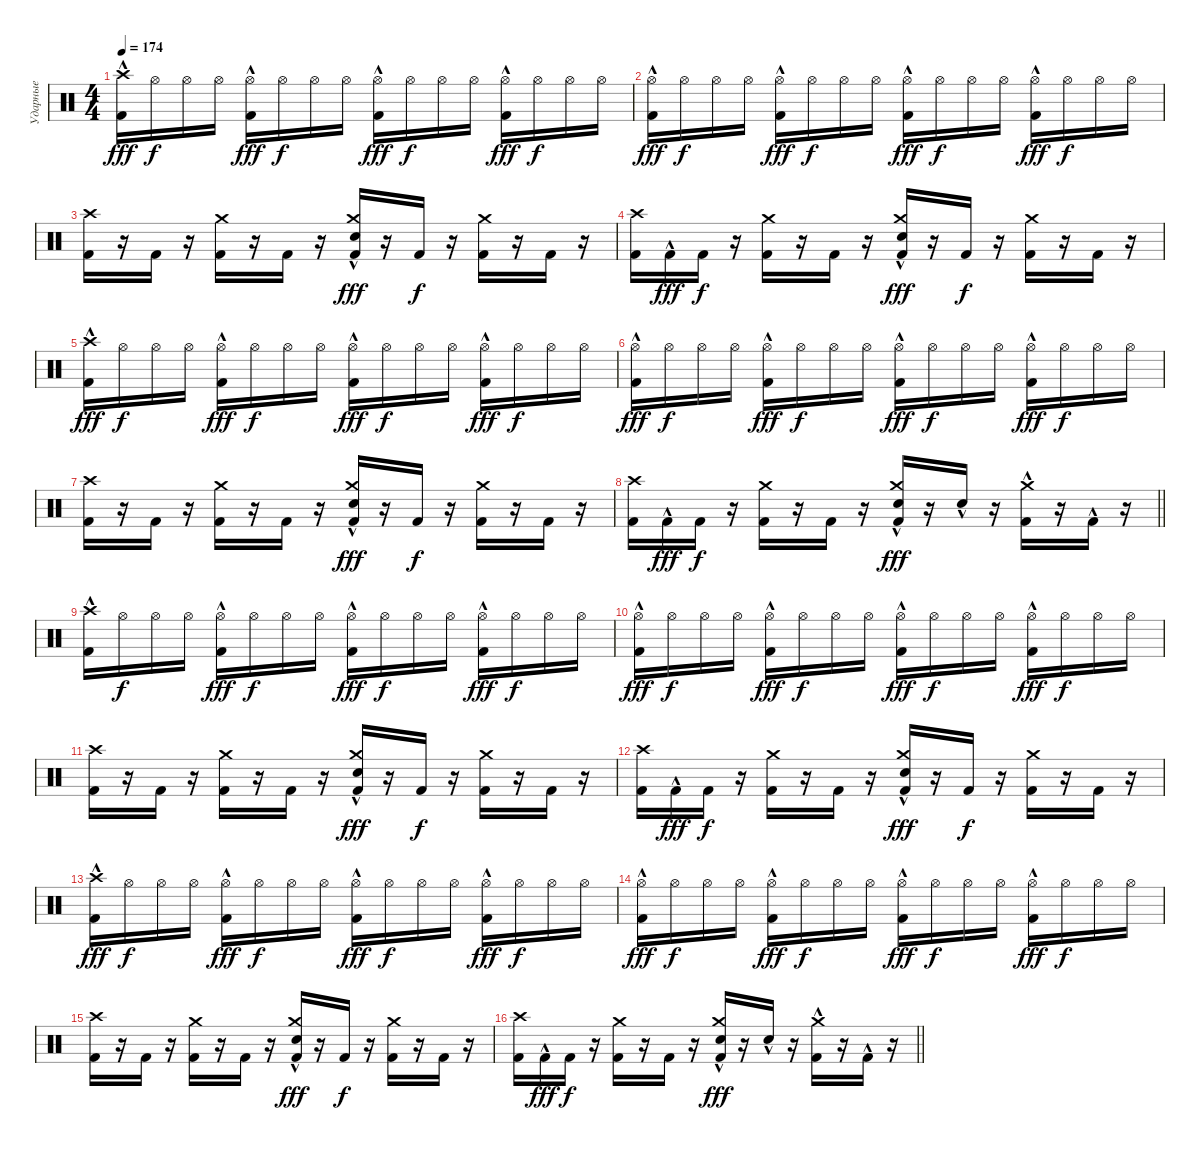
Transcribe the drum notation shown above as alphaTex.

\track ("Ударные" "Ударные") {instrument percussion}
\staff {score}
\articulation defaults
\ts (4 4)
\section ("" "")
\tempo 174
\clef neutral
\ks c
("Kick (hit) 2"{hac} "Crash high (hit)").16{dy fff} "Hi-Hat (open)".16{dy f} "Hi-Hat (open)".16 "Hi-Hat (open)".16 ("Kick (hit) 2"{hac} "Hi-Hat (open)").16{dy fff} "Hi-Hat (open)".16{dy f} "Hi-Hat (open)".16 "Hi-Hat (open)".16 ("Kick (hit) 2"{hac} "Hi-Hat (open)").16{dy fff} "Hi-Hat (open)".16{dy f} "Hi-Hat (open)".16 "Hi-Hat (open)".16 ("Kick (hit) 2"{hac} "Hi-Hat (open)").16{dy fff} "Hi-Hat (open)".16{dy f} "Hi-Hat (open)".16 "Hi-Hat (open)".16 |
("Kick (hit) 2"{hac} "Hi-Hat (open)").16{dy fff} "Hi-Hat (open)".16{dy f} "Hi-Hat (open)".16 "Hi-Hat (open)".16 ("Kick (hit) 2"{hac} "Hi-Hat (open)").16{dy fff} "Hi-Hat (open)".16{dy f} "Hi-Hat (open)".16 "Hi-Hat (open)".16 ("Kick (hit) 2"{hac} "Hi-Hat (open)").16{dy fff} "Hi-Hat (open)".16{dy f} "Hi-Hat (open)".16 "Hi-Hat (open)".16 ("Kick (hit) 2"{hac} "Hi-Hat (open)").16{dy fff} "Hi-Hat (open)".16{dy f} "Hi-Hat (open)".16 "Hi-Hat (open)".16 |
("Kick (hit) 2" "Crash high (hit)").16 r.16 "Kick (hit) 2".16 r.16 ("Kick (hit) 2" "Crash medium (hit)").16 r.16 "Kick (hit) 2".16 r.16 ("Kick (hit) 2" "Crash medium (hit)" "Snare (hit) 2"{hac}).16{dy fff} r.16 "Kick (hit) 2".16{dy f} r.16 ("Kick (hit) 2" "Crash medium (hit)").16 r.16 "Kick (hit) 2".16 r.16 |
("Kick (hit) 2" "Crash high (hit)").16 "Kick (hit) 2"{hac}.16{dy fff} "Kick (hit) 2".16{dy f} r.16 ("Kick (hit) 2" "Crash medium (hit)").16 r.16 "Kick (hit) 2".16 r.16 ("Kick (hit) 2" "Crash medium (hit)" "Snare (hit) 2"{hac}).16{dy fff} r.16 "Kick (hit) 2".16{dy f} r.16 ("Kick (hit) 2" "Crash medium (hit)").16 r.16 "Kick (hit) 2".16 r.16 |
("Kick (hit) 2"{hac} "Crash high (hit)").16{dy fff} "Hi-Hat (open)".16{dy f} "Hi-Hat (open)".16 "Hi-Hat (open)".16 ("Kick (hit) 2"{hac} "Hi-Hat (open)").16{dy fff} "Hi-Hat (open)".16{dy f} "Hi-Hat (open)".16 "Hi-Hat (open)".16 ("Kick (hit) 2"{hac} "Hi-Hat (open)").16{dy fff} "Hi-Hat (open)".16{dy f} "Hi-Hat (open)".16 "Hi-Hat (open)".16 ("Kick (hit) 2"{hac} "Hi-Hat (open)").16{dy fff} "Hi-Hat (open)".16{dy f} "Hi-Hat (open)".16 "Hi-Hat (open)".16 |
("Kick (hit) 2"{hac} "Hi-Hat (open)").16{dy fff} "Hi-Hat (open)".16{dy f} "Hi-Hat (open)".16 "Hi-Hat (open)".16 ("Kick (hit) 2"{hac} "Hi-Hat (open)").16{dy fff} "Hi-Hat (open)".16{dy f} "Hi-Hat (open)".16 "Hi-Hat (open)".16 ("Kick (hit) 2"{hac} "Hi-Hat (open)").16{dy fff} "Hi-Hat (open)".16{dy f} "Hi-Hat (open)".16 "Hi-Hat (open)".16 ("Kick (hit) 2"{hac} "Hi-Hat (open)").16{dy fff} "Hi-Hat (open)".16{dy f} "Hi-Hat (open)".16 "Hi-Hat (open)".16 |
("Kick (hit) 2" "Crash high (hit)").16 r.16 "Kick (hit) 2".16 r.16 ("Kick (hit) 2" "Crash medium (hit)").16 r.16 "Kick (hit) 2".16 r.16 ("Kick (hit) 2" "Crash medium (hit)" "Snare (hit) 2"{hac}).16{dy fff} r.16 "Kick (hit) 2".16{dy f} r.16 ("Kick (hit) 2" "Crash medium (hit)").16 r.16 "Kick (hit) 2".16 r.16 |
\barLineRight lightlight
("Kick (hit) 2" "Crash high (hit)").16 "Kick (hit) 2"{hac}.16{dy fff} "Kick (hit) 2".16{dy f} r.16 ("Kick (hit) 2" "Crash medium (hit)").16 r.16 "Kick (hit) 2".16 r.16 ("Kick (hit) 2" "Crash medium (hit)" "Snare (hit) 2"{hac}).16{dy fff} r.16 "Snare (hit) 2"{hac}.16 r.16 ("Kick (hit) 2"{hac} "Crash medium (hit)").16 r.16 "Kick (hit) 2"{hac}.16 r.16 |
\section ("" "")
("Kick (hit) 2"{hac} "Crash high (hit)").16 "Hi-Hat (open)".16{dy f} "Hi-Hat (open)".16 "Hi-Hat (open)".16 ("Kick (hit) 2"{hac} "Hi-Hat (open)").16{dy fff} "Hi-Hat (open)".16{dy f} "Hi-Hat (open)".16 "Hi-Hat (open)".16 ("Kick (hit) 2"{hac} "Hi-Hat (open)").16{dy fff} "Hi-Hat (open)".16{dy f} "Hi-Hat (open)".16 "Hi-Hat (open)".16 ("Kick (hit) 2"{hac} "Hi-Hat (open)").16{dy fff} "Hi-Hat (open)".16{dy f} "Hi-Hat (open)".16 "Hi-Hat (open)".16 |
("Kick (hit) 2"{hac} "Hi-Hat (open)").16{dy fff} "Hi-Hat (open)".16{dy f} "Hi-Hat (open)".16 "Hi-Hat (open)".16 ("Kick (hit) 2"{hac} "Hi-Hat (open)").16{dy fff} "Hi-Hat (open)".16{dy f} "Hi-Hat (open)".16 "Hi-Hat (open)".16 ("Kick (hit) 2"{hac} "Hi-Hat (open)").16{dy fff} "Hi-Hat (open)".16{dy f} "Hi-Hat (open)".16 "Hi-Hat (open)".16 ("Kick (hit) 2"{hac} "Hi-Hat (open)").16{dy fff} "Hi-Hat (open)".16{dy f} "Hi-Hat (open)".16 "Hi-Hat (open)".16 |
("Kick (hit) 2" "Crash high (hit)").16 r.16 "Kick (hit) 2".16 r.16 ("Kick (hit) 2" "Crash medium (hit)").16 r.16 "Kick (hit) 2".16 r.16 ("Kick (hit) 2" "Crash medium (hit)" "Snare (hit) 2"{hac}).16{dy fff} r.16 "Kick (hit) 2".16{dy f} r.16 ("Kick (hit) 2" "Crash medium (hit)").16 r.16 "Kick (hit) 2".16 r.16 |
("Kick (hit) 2" "Crash high (hit)").16 "Kick (hit) 2"{hac}.16{dy fff} "Kick (hit) 2".16{dy f} r.16 ("Kick (hit) 2" "Crash medium (hit)").16 r.16 "Kick (hit) 2".16 r.16 ("Kick (hit) 2" "Crash medium (hit)" "Snare (hit) 2"{hac}).16{dy fff} r.16 "Kick (hit) 2".16{dy f} r.16 ("Kick (hit) 2" "Crash medium (hit)").16 r.16 "Kick (hit) 2".16 r.16 |
("Kick (hit) 2"{hac} "Crash high (hit)").16{dy fff} "Hi-Hat (open)".16{dy f} "Hi-Hat (open)".16 "Hi-Hat (open)".16 ("Kick (hit) 2"{hac} "Hi-Hat (open)").16{dy fff} "Hi-Hat (open)".16{dy f} "Hi-Hat (open)".16 "Hi-Hat (open)".16 ("Kick (hit) 2"{hac} "Hi-Hat (open)").16{dy fff} "Hi-Hat (open)".16{dy f} "Hi-Hat (open)".16 "Hi-Hat (open)".16 ("Kick (hit) 2"{hac} "Hi-Hat (open)").16{dy fff} "Hi-Hat (open)".16{dy f} "Hi-Hat (open)".16 "Hi-Hat (open)".16 |
("Kick (hit) 2"{hac} "Hi-Hat (open)").16{dy fff} "Hi-Hat (open)".16{dy f} "Hi-Hat (open)".16 "Hi-Hat (open)".16 ("Kick (hit) 2"{hac} "Hi-Hat (open)").16{dy fff} "Hi-Hat (open)".16{dy f} "Hi-Hat (open)".16 "Hi-Hat (open)".16 ("Kick (hit) 2"{hac} "Hi-Hat (open)").16{dy fff} "Hi-Hat (open)".16{dy f} "Hi-Hat (open)".16 "Hi-Hat (open)".16 ("Kick (hit) 2"{hac} "Hi-Hat (open)").16{dy fff} "Hi-Hat (open)".16{dy f} "Hi-Hat (open)".16 "Hi-Hat (open)".16 |
("Kick (hit) 2" "Crash high (hit)").16 r.16 "Kick (hit) 2".16 r.16 ("Kick (hit) 2" "Crash medium (hit)").16 r.16 "Kick (hit) 2".16 r.16 ("Kick (hit) 2" "Crash medium (hit)" "Snare (hit) 2"{hac}).16{dy fff} r.16 "Kick (hit) 2".16{dy f} r.16 ("Kick (hit) 2" "Crash medium (hit)").16 r.16 "Kick (hit) 2".16 r.16 |
\barLineRight lightlight
("Kick (hit) 2" "Crash high (hit)").16 "Kick (hit) 2"{hac}.16{dy fff} "Kick (hit) 2".16{dy f} r.16 ("Kick (hit) 2" "Crash medium (hit)").16 r.16 "Kick (hit) 2".16 r.16 ("Kick (hit) 2" "Crash medium (hit)" "Snare (hit) 2"{hac}).16{dy fff} r.16 "Snare (hit) 2"{hac}.16 r.16 ("Kick (hit) 2"{hac} "Crash medium (hit)").16 r.16 "Kick (hit) 2"{hac}.16 r.16
